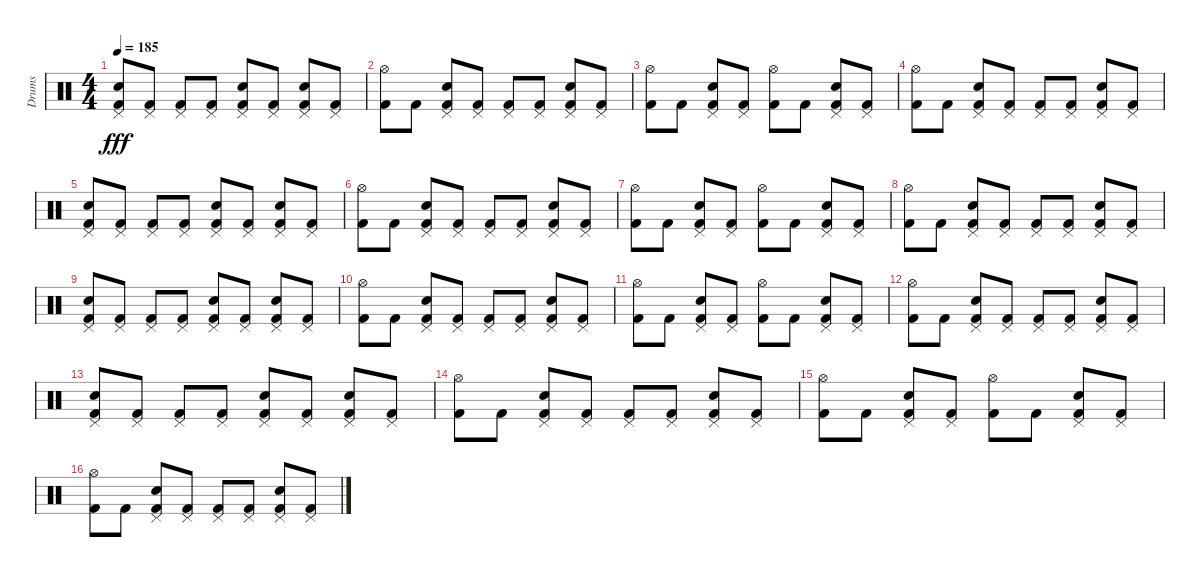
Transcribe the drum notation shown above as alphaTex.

\track ("Drums" "Drums") {instrument percussion}
\staff {score}
\articulation defaults
\ts (4 4)
\tempo 185
\clef neutral
\ks c
("Pedal Hi-Hat (hit)" "Snare (hit) 2" "Kick (hit) 2").8{dy fff} ("Pedal Hi-Hat (hit)" "Kick (hit) 2").8 ("Pedal Hi-Hat (hit)" "Kick (hit) 2").8 ("Pedal Hi-Hat (hit)" "Kick (hit) 2").8 ("Pedal Hi-Hat (hit)" "Snare (hit) 2" "Kick (hit) 2").8 ("Pedal Hi-Hat (hit)" "Kick (hit) 2").8 ("Pedal Hi-Hat (hit)" "Snare (hit) 2" "Kick (hit) 2").8 ("Pedal Hi-Hat (hit)" "Kick (hit) 2").8 |
("Hi-Hat (open)" "Kick (hit) 2").8 "Kick (hit) 2".8 ("Pedal Hi-Hat (hit)" "Snare (hit) 2" "Kick (hit) 2").8 ("Pedal Hi-Hat (hit)" "Kick (hit) 2").8 ("Pedal Hi-Hat (hit)" "Kick (hit) 2").8 ("Pedal Hi-Hat (hit)" "Kick (hit) 2").8 ("Pedal Hi-Hat (hit)" "Snare (hit) 2" "Kick (hit) 2").8 ("Pedal Hi-Hat (hit)" "Kick (hit) 2").8 |
("Hi-Hat (open)" "Kick (hit) 2").8 "Kick (hit) 2".8 ("Pedal Hi-Hat (hit)" "Snare (hit) 2" "Kick (hit) 2").8 ("Pedal Hi-Hat (hit)" "Kick (hit) 2").8 ("Hi-Hat (open)" "Kick (hit) 2").8 "Kick (hit) 2".8 ("Pedal Hi-Hat (hit)" "Snare (hit) 2" "Kick (hit) 2").8 ("Pedal Hi-Hat (hit)" "Kick (hit) 2").8 |
("Hi-Hat (open)" "Kick (hit) 2").8 "Kick (hit) 2".8 ("Pedal Hi-Hat (hit)" "Snare (hit) 2" "Kick (hit) 2").8 ("Pedal Hi-Hat (hit)" "Kick (hit) 2").8 ("Pedal Hi-Hat (hit)" "Kick (hit) 2").8 ("Pedal Hi-Hat (hit)" "Kick (hit) 2").8 ("Pedal Hi-Hat (hit)" "Snare (hit) 2" "Kick (hit) 2").8 ("Pedal Hi-Hat (hit)" "Kick (hit) 2").8 |
("Pedal Hi-Hat (hit)" "Snare (hit) 2" "Kick (hit) 2").8 ("Pedal Hi-Hat (hit)" "Kick (hit) 2").8 ("Pedal Hi-Hat (hit)" "Kick (hit) 2").8 ("Pedal Hi-Hat (hit)" "Kick (hit) 2").8 ("Pedal Hi-Hat (hit)" "Snare (hit) 2" "Kick (hit) 2").8 ("Pedal Hi-Hat (hit)" "Kick (hit) 2").8 ("Pedal Hi-Hat (hit)" "Snare (hit) 2" "Kick (hit) 2").8 ("Pedal Hi-Hat (hit)" "Kick (hit) 2").8 |
("Hi-Hat (open)" "Kick (hit) 2").8 "Kick (hit) 2".8 ("Pedal Hi-Hat (hit)" "Snare (hit) 2" "Kick (hit) 2").8 ("Pedal Hi-Hat (hit)" "Kick (hit) 2").8 ("Pedal Hi-Hat (hit)" "Kick (hit) 2").8 ("Pedal Hi-Hat (hit)" "Kick (hit) 2").8 ("Pedal Hi-Hat (hit)" "Snare (hit) 2" "Kick (hit) 2").8 ("Pedal Hi-Hat (hit)" "Kick (hit) 2").8 |
("Hi-Hat (open)" "Kick (hit) 2").8 "Kick (hit) 2".8 ("Pedal Hi-Hat (hit)" "Snare (hit) 2" "Kick (hit) 2").8 ("Pedal Hi-Hat (hit)" "Kick (hit) 2").8 ("Hi-Hat (open)" "Kick (hit) 2").8 "Kick (hit) 2".8 ("Pedal Hi-Hat (hit)" "Snare (hit) 2" "Kick (hit) 2").8 ("Pedal Hi-Hat (hit)" "Kick (hit) 2").8 |
("Hi-Hat (open)" "Kick (hit) 2").8 "Kick (hit) 2".8 ("Pedal Hi-Hat (hit)" "Snare (hit) 2" "Kick (hit) 2").8 ("Pedal Hi-Hat (hit)" "Kick (hit) 2").8 ("Pedal Hi-Hat (hit)" "Kick (hit) 2").8 ("Pedal Hi-Hat (hit)" "Kick (hit) 2").8 ("Pedal Hi-Hat (hit)" "Snare (hit) 2" "Kick (hit) 2").8 ("Pedal Hi-Hat (hit)" "Kick (hit) 2").8 |
("Pedal Hi-Hat (hit)" "Snare (hit) 2" "Kick (hit) 2").8 ("Pedal Hi-Hat (hit)" "Kick (hit) 2").8 ("Pedal Hi-Hat (hit)" "Kick (hit) 2").8 ("Pedal Hi-Hat (hit)" "Kick (hit) 2").8 ("Pedal Hi-Hat (hit)" "Snare (hit) 2" "Kick (hit) 2").8 ("Pedal Hi-Hat (hit)" "Kick (hit) 2").8 ("Pedal Hi-Hat (hit)" "Snare (hit) 2" "Kick (hit) 2").8 ("Pedal Hi-Hat (hit)" "Kick (hit) 2").8 |
("Hi-Hat (open)" "Kick (hit) 2").8 "Kick (hit) 2".8 ("Pedal Hi-Hat (hit)" "Snare (hit) 2" "Kick (hit) 2").8 ("Pedal Hi-Hat (hit)" "Kick (hit) 2").8 ("Pedal Hi-Hat (hit)" "Kick (hit) 2").8 ("Pedal Hi-Hat (hit)" "Kick (hit) 2").8 ("Pedal Hi-Hat (hit)" "Snare (hit) 2" "Kick (hit) 2").8 ("Pedal Hi-Hat (hit)" "Kick (hit) 2").8 |
("Hi-Hat (open)" "Kick (hit) 2").8 "Kick (hit) 2".8 ("Pedal Hi-Hat (hit)" "Snare (hit) 2" "Kick (hit) 2").8 ("Pedal Hi-Hat (hit)" "Kick (hit) 2").8 ("Hi-Hat (open)" "Kick (hit) 2").8 "Kick (hit) 2".8 ("Pedal Hi-Hat (hit)" "Snare (hit) 2" "Kick (hit) 2").8 ("Pedal Hi-Hat (hit)" "Kick (hit) 2").8 |
("Hi-Hat (open)" "Kick (hit) 2").8 "Kick (hit) 2".8 ("Pedal Hi-Hat (hit)" "Snare (hit) 2" "Kick (hit) 2").8 ("Pedal Hi-Hat (hit)" "Kick (hit) 2").8 ("Pedal Hi-Hat (hit)" "Kick (hit) 2").8 ("Pedal Hi-Hat (hit)" "Kick (hit) 2").8 ("Pedal Hi-Hat (hit)" "Snare (hit) 2" "Kick (hit) 2").8 ("Pedal Hi-Hat (hit)" "Kick (hit) 2").8 |
("Pedal Hi-Hat (hit)" "Snare (hit) 2" "Kick (hit) 2").8 ("Pedal Hi-Hat (hit)" "Kick (hit) 2").8 ("Pedal Hi-Hat (hit)" "Kick (hit) 2").8 ("Pedal Hi-Hat (hit)" "Kick (hit) 2").8 ("Pedal Hi-Hat (hit)" "Snare (hit) 2" "Kick (hit) 2").8 ("Pedal Hi-Hat (hit)" "Kick (hit) 2").8 ("Pedal Hi-Hat (hit)" "Snare (hit) 2" "Kick (hit) 2").8 ("Pedal Hi-Hat (hit)" "Kick (hit) 2").8 |
("Hi-Hat (open)" "Kick (hit) 2").8 "Kick (hit) 2".8 ("Pedal Hi-Hat (hit)" "Snare (hit) 2" "Kick (hit) 2").8 ("Pedal Hi-Hat (hit)" "Kick (hit) 2").8 ("Pedal Hi-Hat (hit)" "Kick (hit) 2").8 ("Pedal Hi-Hat (hit)" "Kick (hit) 2").8 ("Pedal Hi-Hat (hit)" "Snare (hit) 2" "Kick (hit) 2").8 ("Pedal Hi-Hat (hit)" "Kick (hit) 2").8 |
("Hi-Hat (open)" "Kick (hit) 2").8 "Kick (hit) 2".8 ("Pedal Hi-Hat (hit)" "Snare (hit) 2" "Kick (hit) 2").8 ("Pedal Hi-Hat (hit)" "Kick (hit) 2").8 ("Hi-Hat (open)" "Kick (hit) 2").8 "Kick (hit) 2".8 ("Pedal Hi-Hat (hit)" "Snare (hit) 2" "Kick (hit) 2").8 ("Pedal Hi-Hat (hit)" "Kick (hit) 2").8 |
("Hi-Hat (open)" "Kick (hit) 2").8 "Kick (hit) 2".8 ("Pedal Hi-Hat (hit)" "Snare (hit) 2" "Kick (hit) 2").8 ("Pedal Hi-Hat (hit)" "Kick (hit) 2").8 ("Pedal Hi-Hat (hit)" "Kick (hit) 2").8 ("Pedal Hi-Hat (hit)" "Kick (hit) 2").8 ("Pedal Hi-Hat (hit)" "Snare (hit) 2" "Kick (hit) 2").8 ("Pedal Hi-Hat (hit)" "Kick (hit) 2").8
